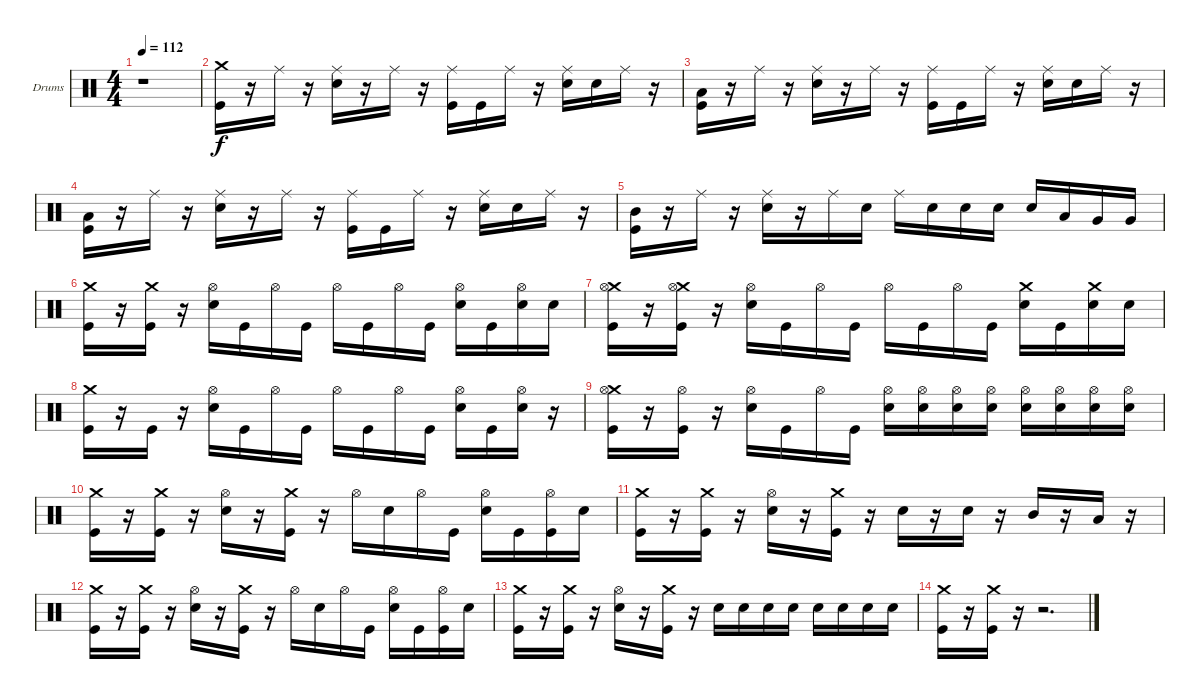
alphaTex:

\bracketExtendMode groupsimilarinstruments
\firstSystemTrackNameOrientation horizontal
\otherSystemsTrackNameOrientation horizontal
\track ("Drumkit" "Drums") {instrument percussion}
\staff {score}
\articulation defaults
\ts (4 4)
\tempo 112
\clef neutral
\ks c
r.1{dy f} |
("Crash medium (hit)" "Kick (hit)").16 r.16 "Ride (middle)".16 r.16 ("Ride (middle)" "Snare (hit) 2").16 r.16 "Ride (middle)".16 r.16 ("Ride (middle)" "Kick (hit)").16 "Kick (hit)".16 "Ride (middle)".16 r.16 ("Ride (middle)" "Snare (hit) 2").16 "Snare (hit) 2".16 "Ride (middle)".16 r.16 |
("Low Tom (hit)" "Kick (hit)").16 r.16 "Ride (middle)".16 r.16 ("Ride (middle)" "Snare (hit) 2").16 r.16 "Ride (middle)".16 r.16 ("Ride (middle)" "Kick (hit)").16 "Kick (hit)".16 "Ride (middle)".16 r.16 ("Ride (middle)" "Snare (hit) 2").16 "Snare (hit) 2".16 "Ride (middle)".16 r.16 |
("Low Tom (hit)" "Kick (hit)").16 r.16 "Ride (middle)".16 r.16 ("Ride (middle)" "Snare (hit) 2").16 r.16 "Ride (middle)".16 r.16 ("Ride (middle)" "Kick (hit)").16 "Kick (hit)".16 "Ride (middle)".16 r.16 ("Ride (middle)" "Snare (hit) 2").16 "Snare (hit) 2".16 "Ride (middle)".16 r.16 |
("Mid Tom (hit)" "Kick (hit)").16 r.16 "Ride (middle)".16 r.16 ("Ride (middle)" "Snare (hit) 2").16 r.16 "Ride (middle)".16 "Snare (hit) 2".16 "Ride (middle)".16 "Snare (hit) 2".16 "Snare (hit) 2".16 "Snare (hit) 2".16 "Snare (hit) 2".16 "Low Tom (hit)".16 "Very Low Tom (hit)".16 "Very Low Tom (hit)".16 |
("Crash medium (hit)" "Kick (hit)").16 r.16 ("Crash medium (hit)" "Kick (hit)").16 r.16 ("Hi-Hat (open)" "Snare (hit) 2").16 "Kick (hit)".16 "Hi-Hat (open)".16 "Kick (hit)".16 "Hi-Hat (open)".16 "Kick (hit)".16 "Hi-Hat (open)".16 "Kick (hit)".16 ("Hi-Hat (open)" "Snare (hit) 2").16 "Kick (hit)".16 ("Hi-Hat (open)" "Snare (hit) 2").16 "Snare (hit) 2".16 |
("Crash medium (hit)" "Hi-Hat (open)" "Kick (hit)").16 r.16 ("Crash medium (hit)" "Hi-Hat (open)" "Kick (hit)").16 r.16 ("Hi-Hat (open)" "Snare (hit) 2").16 "Kick (hit)".16 "Hi-Hat (open)".16 "Kick (hit)".16 "Hi-Hat (open)".16 "Kick (hit)".16 "Hi-Hat (open)".16 "Kick (hit)".16 ("Crash medium (hit)" "Snare (hit) 2").16 "Kick (hit)".16 ("Crash medium (hit)" "Snare (hit) 2").16 "Snare (hit) 2".16 |
("Crash medium (hit)" "Kick (hit)").16 r.16 "Kick (hit)".16 r.16 ("Hi-Hat (open)" "Snare (hit) 2").16 "Kick (hit)".16 "Hi-Hat (open)".16 "Kick (hit)".16 "Hi-Hat (open)".16 "Kick (hit)".16 "Hi-Hat (open)".16 "Kick (hit)".16 ("Hi-Hat (open)" "Snare (hit) 2").16 "Kick (hit)".16 ("Hi-Hat (open)" "Snare (hit) 2").16 r.16 |
("Crash medium (hit)" "Hi-Hat (open)" "Kick (hit)").16 r.16 ("Hi-Hat (open)" "Kick (hit)").16 r.16 ("Hi-Hat (open)" "Snare (hit) 2").16 "Kick (hit)".16 "Hi-Hat (open)".16 "Kick (hit)".16 ("Hi-Hat (open)" "Snare (hit) 2").16 ("Hi-Hat (open)" "Snare (hit) 2").16 ("Hi-Hat (open)" "Snare (hit) 2").16 ("Hi-Hat (open)" "Snare (hit) 2").16 ("Hi-Hat (open)" "Snare (hit) 2").16 ("Hi-Hat (open)" "Snare (hit) 2").16 ("Hi-Hat (open)" "Snare (hit) 2").16 ("Hi-Hat (open)" "Snare (hit) 2").16 |
("Crash medium (hit)" "Kick (hit)").16 r.16 ("Crash medium (hit)" "Kick (hit)").16 r.16 ("Hi-Hat (open)" "Snare (hit) 2").16 r.16 ("Crash medium (hit)" "Kick (hit)").16 r.16 "Hi-Hat (open)".16 "Snare (hit) 2".16 "Hi-Hat (open)".16 "Kick (hit)".16 ("Hi-Hat (open)" "Snare (hit) 2").16 "Kick (hit)".16 ("Hi-Hat (open)" "Kick (hit)").16 "Snare (hit) 2".16 |
("Crash medium (hit)" "Kick (hit)").16 r.16 ("Crash medium (hit)" "Kick (hit)").16 r.16 ("Hi-Hat (open)" "Snare (hit) 2").16 r.16 ("Crash medium (hit)" "Kick (hit)").16 r.16 "Snare (hit) 2".16 r.16 "Snare (hit) 2".16 r.16 "Mid Tom (hit)".16 r.16 "Low Tom (hit)".16 r.16 |
("Crash medium (hit)" "Kick (hit)").16 r.16 ("Crash medium (hit)" "Kick (hit)").16 r.16 ("Hi-Hat (open)" "Snare (hit) 2").16 r.16 ("Crash medium (hit)" "Kick (hit)").16 r.16 "Hi-Hat (open)".16 "Snare (hit) 2".16 "Hi-Hat (open)".16 "Kick (hit)".16 ("Hi-Hat (open)" "Snare (hit) 2").16 "Kick (hit)".16 ("Hi-Hat (open)" "Kick (hit)").16 "Snare (hit) 2".16 |
("Crash medium (hit)" "Kick (hit)").16 r.16 ("Crash medium (hit)" "Kick (hit)").16 r.16 ("Hi-Hat (open)" "Snare (hit) 2").16 r.16 ("Crash medium (hit)" "Kick (hit)").16 r.16 "Snare (hit) 2".16 "Snare (hit) 2".16 "Snare (hit) 2".16 "Snare (hit) 2".16 "Snare (hit) 2".16 "Snare (hit) 2".16 "Snare (hit) 2".16 "Snare (hit) 2".16 |
("Crash medium (hit)" "Kick (hit)").16 r.16 ("Crash medium (hit)" "Kick (hit)").16 r.16 r.2{d}
